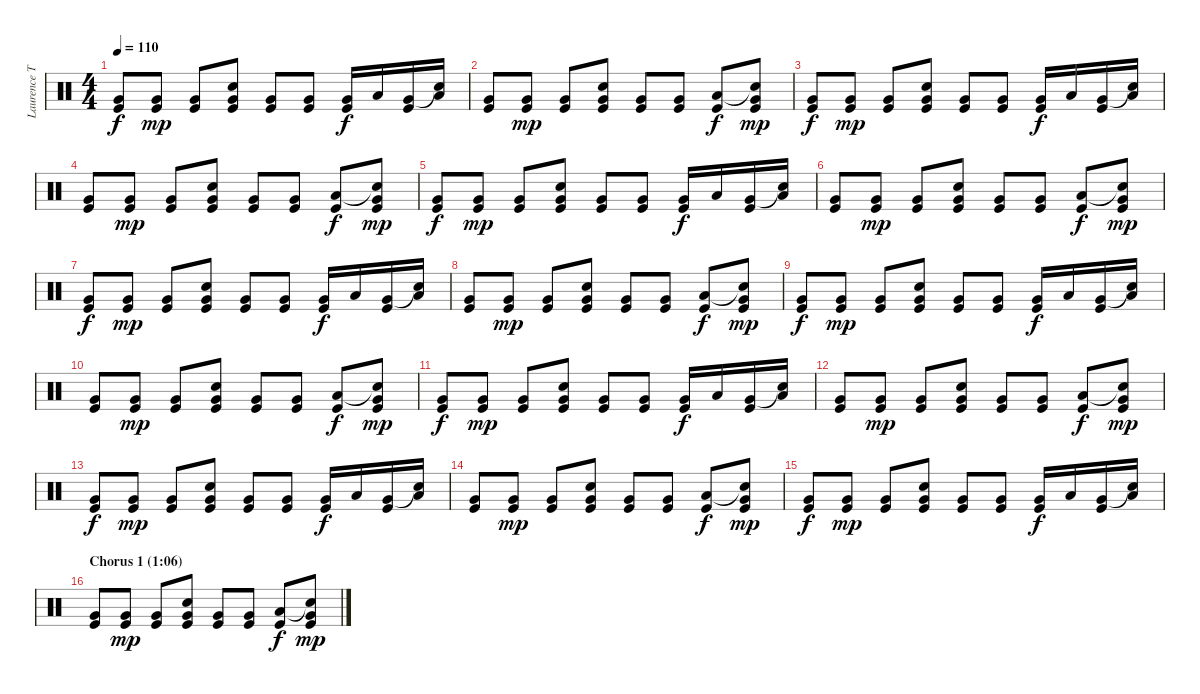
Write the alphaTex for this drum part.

\track ("Laurence Tolhurst (drums)" "Laurence T") {instrument percussion}
\staff {score}
\articulation defaults
\ts (4 4)
\tempo 110
\clef neutral
\ks c
("Very Low Tom (hit)" "Kick (hit)").8{dy f} ("Very Low Tom (hit)" "Kick (hit)").8{dy mp} ("Very Low Tom (hit)" "Kick (hit)").8 ("Snare (hit) 2" "Very Low Tom (hit)" "Kick (hit)").8 ("Very Low Tom (hit)" "Kick (hit)").8 ("Very Low Tom (hit)" "Kick (hit)").8 ("Very Low Tom (hit)" "Kick (hit)").16{dy f} "Low Tom (hit)".16 ("Very Low Tom (hit)" "Kick (hit)").16 ("Snare (hit)"{t} "Low Tom (hit)").16 |
("Very Low Tom (hit)" "Kick (hit)").8 ("Very Low Tom (hit)" "Kick (hit)").8{dy mp} ("Very Low Tom (hit)" "Kick (hit)").8 ("Snare (hit) 2" "Very Low Tom (hit)" "Kick (hit)").8 ("Very Low Tom (hit)" "Kick (hit)").8 ("Very Low Tom (hit)" "Kick (hit)").8 ("Low Tom (hit)" "Kick (hit)").8{dy f} ("Snare (hit)"{t} "Very Low Tom (hit)" "Kick (hit)").8{dy mp} |
("Very Low Tom (hit)" "Kick (hit)").8{dy f} ("Very Low Tom (hit)" "Kick (hit)").8{dy mp} ("Very Low Tom (hit)" "Kick (hit)").8 ("Snare (hit) 2" "Very Low Tom (hit)" "Kick (hit)").8 ("Very Low Tom (hit)" "Kick (hit)").8 ("Very Low Tom (hit)" "Kick (hit)").8 ("Very Low Tom (hit)" "Kick (hit)").16{dy f} "Low Tom (hit)".16 ("Very Low Tom (hit)" "Kick (hit)").16 ("Snare (hit)"{t} "Low Tom (hit)").16 |
("Very Low Tom (hit)" "Kick (hit)").8 ("Very Low Tom (hit)" "Kick (hit)").8{dy mp} ("Very Low Tom (hit)" "Kick (hit)").8 ("Snare (hit) 2" "Very Low Tom (hit)" "Kick (hit)").8 ("Very Low Tom (hit)" "Kick (hit)").8 ("Very Low Tom (hit)" "Kick (hit)").8 ("Low Tom (hit)" "Kick (hit)").8{dy f} ("Snare (hit)"{t} "Very Low Tom (hit)" "Kick (hit)").8{dy mp} |
("Very Low Tom (hit)" "Kick (hit)").8{dy f} ("Very Low Tom (hit)" "Kick (hit)").8{dy mp} ("Very Low Tom (hit)" "Kick (hit)").8 ("Snare (hit) 2" "Very Low Tom (hit)" "Kick (hit)").8 ("Very Low Tom (hit)" "Kick (hit)").8 ("Very Low Tom (hit)" "Kick (hit)").8 ("Very Low Tom (hit)" "Kick (hit)").16{dy f} "Low Tom (hit)".16 ("Very Low Tom (hit)" "Kick (hit)").16 ("Snare (hit)"{t} "Low Tom (hit)").16 |
("Very Low Tom (hit)" "Kick (hit)").8 ("Very Low Tom (hit)" "Kick (hit)").8{dy mp} ("Very Low Tom (hit)" "Kick (hit)").8 ("Snare (hit) 2" "Very Low Tom (hit)" "Kick (hit)").8 ("Very Low Tom (hit)" "Kick (hit)").8 ("Very Low Tom (hit)" "Kick (hit)").8 ("Low Tom (hit)" "Kick (hit)").8{dy f} ("Snare (hit)"{t} "Very Low Tom (hit)" "Kick (hit)").8{dy mp} |
("Very Low Tom (hit)" "Kick (hit)").8{dy f} ("Very Low Tom (hit)" "Kick (hit)").8{dy mp} ("Very Low Tom (hit)" "Kick (hit)").8 ("Snare (hit) 2" "Very Low Tom (hit)" "Kick (hit)").8 ("Very Low Tom (hit)" "Kick (hit)").8 ("Very Low Tom (hit)" "Kick (hit)").8 ("Very Low Tom (hit)" "Kick (hit)").16{dy f} "Low Tom (hit)".16 ("Very Low Tom (hit)" "Kick (hit)").16 ("Snare (hit)"{t} "Low Tom (hit)").16 |
("Very Low Tom (hit)" "Kick (hit)").8 ("Very Low Tom (hit)" "Kick (hit)").8{dy mp} ("Very Low Tom (hit)" "Kick (hit)").8 ("Snare (hit) 2" "Very Low Tom (hit)" "Kick (hit)").8 ("Very Low Tom (hit)" "Kick (hit)").8 ("Very Low Tom (hit)" "Kick (hit)").8 ("Low Tom (hit)" "Kick (hit)").8{dy f} ("Snare (hit)"{t} "Very Low Tom (hit)" "Kick (hit)").8{dy mp} |
("Very Low Tom (hit)" "Kick (hit)").8{dy f} ("Very Low Tom (hit)" "Kick (hit)").8{dy mp} ("Very Low Tom (hit)" "Kick (hit)").8 ("Snare (hit) 2" "Very Low Tom (hit)" "Kick (hit)").8 ("Very Low Tom (hit)" "Kick (hit)").8 ("Very Low Tom (hit)" "Kick (hit)").8 ("Very Low Tom (hit)" "Kick (hit)").16{dy f} "Low Tom (hit)".16 ("Very Low Tom (hit)" "Kick (hit)").16 ("Snare (hit)"{t} "Low Tom (hit)").16 |
("Very Low Tom (hit)" "Kick (hit)").8 ("Very Low Tom (hit)" "Kick (hit)").8{dy mp} ("Very Low Tom (hit)" "Kick (hit)").8 ("Snare (hit) 2" "Very Low Tom (hit)" "Kick (hit)").8 ("Very Low Tom (hit)" "Kick (hit)").8 ("Very Low Tom (hit)" "Kick (hit)").8 ("Low Tom (hit)" "Kick (hit)").8{dy f} ("Snare (hit)"{t} "Very Low Tom (hit)" "Kick (hit)").8{dy mp} |
("Very Low Tom (hit)" "Kick (hit)").8{dy f} ("Very Low Tom (hit)" "Kick (hit)").8{dy mp} ("Very Low Tom (hit)" "Kick (hit)").8 ("Snare (hit) 2" "Very Low Tom (hit)" "Kick (hit)").8 ("Very Low Tom (hit)" "Kick (hit)").8 ("Very Low Tom (hit)" "Kick (hit)").8 ("Very Low Tom (hit)" "Kick (hit)").16{dy f} "Low Tom (hit)".16 ("Very Low Tom (hit)" "Kick (hit)").16 ("Snare (hit)"{t} "Low Tom (hit)").16 |
("Very Low Tom (hit)" "Kick (hit)").8 ("Very Low Tom (hit)" "Kick (hit)").8{dy mp} ("Very Low Tom (hit)" "Kick (hit)").8 ("Snare (hit) 2" "Very Low Tom (hit)" "Kick (hit)").8 ("Very Low Tom (hit)" "Kick (hit)").8 ("Very Low Tom (hit)" "Kick (hit)").8 ("Low Tom (hit)" "Kick (hit)").8{dy f} ("Snare (hit)"{t} "Very Low Tom (hit)" "Kick (hit)").8{dy mp} |
("Very Low Tom (hit)" "Kick (hit)").8{dy f} ("Very Low Tom (hit)" "Kick (hit)").8{dy mp} ("Very Low Tom (hit)" "Kick (hit)").8 ("Snare (hit) 2" "Very Low Tom (hit)" "Kick (hit)").8 ("Very Low Tom (hit)" "Kick (hit)").8 ("Very Low Tom (hit)" "Kick (hit)").8 ("Very Low Tom (hit)" "Kick (hit)").16{dy f} "Low Tom (hit)".16 ("Very Low Tom (hit)" "Kick (hit)").16 ("Snare (hit)"{t} "Low Tom (hit)").16 |
("Very Low Tom (hit)" "Kick (hit)").8 ("Very Low Tom (hit)" "Kick (hit)").8{dy mp} ("Very Low Tom (hit)" "Kick (hit)").8 ("Snare (hit) 2" "Very Low Tom (hit)" "Kick (hit)").8 ("Very Low Tom (hit)" "Kick (hit)").8 ("Very Low Tom (hit)" "Kick (hit)").8 ("Low Tom (hit)" "Kick (hit)").8{dy f} ("Snare (hit)"{t} "Very Low Tom (hit)" "Kick (hit)").8{dy mp} |
("Very Low Tom (hit)" "Kick (hit)").8{dy f} ("Very Low Tom (hit)" "Kick (hit)").8{dy mp} ("Very Low Tom (hit)" "Kick (hit)").8 ("Snare (hit) 2" "Very Low Tom (hit)" "Kick (hit)").8 ("Very Low Tom (hit)" "Kick (hit)").8 ("Very Low Tom (hit)" "Kick (hit)").8 ("Very Low Tom (hit)" "Kick (hit)").16{dy f} "Low Tom (hit)".16 ("Very Low Tom (hit)" "Kick (hit)").16 ("Snare (hit)"{t} "Low Tom (hit)").16 |
\section ("" "Chorus 1 (1:06)")
("Very Low Tom (hit)" "Kick (hit)").8 ("Very Low Tom (hit)" "Kick (hit)").8{dy mp} ("Very Low Tom (hit)" "Kick (hit)").8 ("Snare (hit) 2" "Very Low Tom (hit)" "Kick (hit)").8 ("Very Low Tom (hit)" "Kick (hit)").8 ("Very Low Tom (hit)" "Kick (hit)").8 ("Low Tom (hit)" "Kick (hit)").8{dy f} ("Snare (hit)"{t} "Very Low Tom (hit)" "Kick (hit)").8{dy mp}
